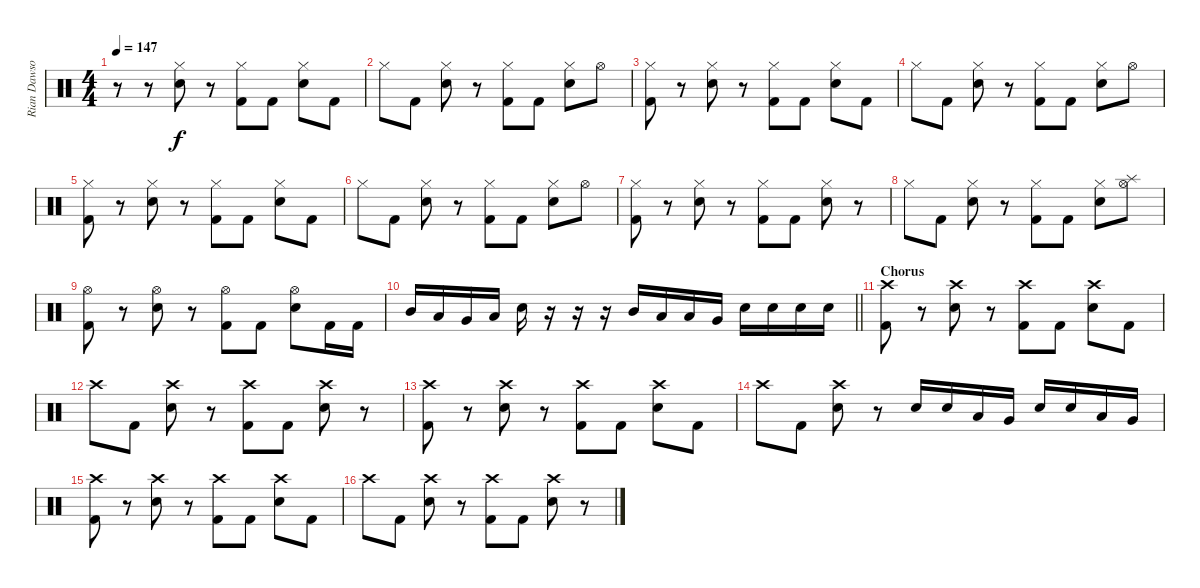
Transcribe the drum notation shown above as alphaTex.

\track ("Rian Dawson (Drums)" "Rian Dawso") {instrument percussion}
\staff {score}
\articulation defaults
\ts (4 4)
\tempo 147
\clef neutral
\ks c
r.8{dy f} r.8 ("Electric Snare (hit)" "Hi-Hat (closed)").8 r.8 ("Hi-Hat (closed)" "Kick (hit) 2").8 "Kick (hit) 2".8 ("Electric Snare (hit)" "Hi-Hat (closed)").8 "Kick (hit) 2".8 |
"Hi-Hat (closed)".8 "Kick (hit) 2".8 ("Electric Snare (hit)" "Hi-Hat (closed)").8 r.8 ("Hi-Hat (closed)" "Kick (hit) 2").8 "Kick (hit) 2".8 ("Electric Snare (hit)" "Hi-Hat (closed)").8 "Hi-Hat (open)".8 |
("Hi-Hat (closed)" "Kick (hit) 2").8 r.8 ("Electric Snare (hit)" "Hi-Hat (closed)").8 r.8 ("Hi-Hat (closed)" "Kick (hit) 2").8 "Kick (hit) 2".8 ("Electric Snare (hit)" "Hi-Hat (closed)").8 "Kick (hit) 2".8 |
"Hi-Hat (closed)".8 "Kick (hit) 2".8 ("Electric Snare (hit)" "Hi-Hat (closed)").8 r.8 ("Hi-Hat (closed)" "Kick (hit) 2").8 "Kick (hit) 2".8 ("Electric Snare (hit)" "Hi-Hat (closed)").8 "Hi-Hat (open)".8 |
("Hi-Hat (closed)" "Kick (hit) 2").8 r.8 ("Electric Snare (hit)" "Hi-Hat (closed)").8 r.8 ("Hi-Hat (closed)" "Kick (hit) 2").8 "Kick (hit) 2".8 ("Electric Snare (hit)" "Hi-Hat (closed)").8 "Kick (hit) 2".8 |
"Hi-Hat (closed)".8 "Kick (hit) 2".8 ("Electric Snare (hit)" "Hi-Hat (closed)").8 r.8 ("Hi-Hat (closed)" "Kick (hit) 2").8 "Kick (hit) 2".8 ("Electric Snare (hit)" "Hi-Hat (closed)").8 "Hi-Hat (open)".8 |
("Hi-Hat (closed)" "Kick (hit) 2").8 r.8 ("Electric Snare (hit)" "Hi-Hat (closed)").8 r.8 ("Hi-Hat (closed)" "Kick (hit) 2").8 "Kick (hit) 2".8 ("Electric Snare (hit)" "Hi-Hat (closed)").8 r.8 |
"Hi-Hat (closed)".8 "Kick (hit) 2".8 ("Electric Snare (hit)" "Hi-Hat (closed)").8 r.8 ("Hi-Hat (closed)" "Kick (hit) 2").8 "Kick (hit) 2".8 ("Electric Snare (hit)" "Hi-Hat (closed)").8 ("Hi-Hat (open)" "Splash (hit)").8 |
("Hi-Hat (open)" "Kick (hit) 2").8 r.8 ("Electric Snare (hit)" "Hi-Hat (open)").8 r.8 ("Hi-Hat (open)" "Kick (hit) 2").8 "Kick (hit) 2".8 ("Electric Snare (hit)" "Hi-Hat (open)").8 "Kick (hit) 2".16 "Kick (hit) 2".16 |
\barLineRight lightlight "Mid Tom (hit)".16 "Low Tom (hit)".16 "Very Low Tom (hit)".16 "Low Tom (hit)".16 "Electric Snare (hit)".16
r.16 r.16 r.16 "Mid Tom (hit)".16 "Low Tom (hit)".16 "Low Tom (hit)".16 "Very Low Tom (hit)".16 "Electric Snare (hit)".16 "Electric Snare (hit)".16 "Electric Snare (hit)".16 "Electric Snare (hit)".16 |
\section ("" "Chorus")
("Crash high (hit)" "Kick (hit) 2").8 r.8 ("Crash high (hit)" "Electric Snare (hit)").8 r.8 ("Crash high (hit)" "Kick (hit) 2").8 "Kick (hit) 2".8 ("Crash high (hit)" "Electric Snare (hit)").8 "Kick (hit) 2".8 |
"Crash high (hit)".8 "Kick (hit) 2".8 ("Crash high (hit)" "Electric Snare (hit)").8 r.8 ("Crash high (hit)" "Kick (hit) 2").8 "Kick (hit) 2".8 ("Crash high (hit)" "Electric Snare (hit)").8 r.8 |
("Crash high (hit)" "Kick (hit) 2").8 r.8 ("Crash high (hit)" "Electric Snare (hit)").8 r.8 ("Crash high (hit)" "Kick (hit) 2").8 "Kick (hit) 2".8 ("Crash high (hit)" "Electric Snare (hit)").8 "Kick (hit) 2".8 |
"Crash high (hit)".8 "Kick (hit) 2".8 ("Crash high (hit)" "Electric Snare (hit)").8 r.8 "Electric Snare (hit)".16 "Electric Snare (hit)".16 "Low Tom (hit)".16 "Very Low Tom (hit)".16 "Electric Snare (hit)".16 "Electric Snare (hit)".16 "Low Tom (hit)".16 "Very Low Tom (hit)".16 |
("Crash high (hit)" "Kick (hit) 2").8 r.8 ("Crash high (hit)" "Electric Snare (hit)").8 r.8 ("Crash high (hit)" "Kick (hit) 2").8 "Kick (hit) 2".8 ("Crash high (hit)" "Electric Snare (hit)").8 "Kick (hit) 2".8 |
"Crash high (hit)".8 "Kick (hit) 2".8 ("Crash high (hit)" "Electric Snare (hit)").8 r.8 ("Crash high (hit)" "Kick (hit) 2").8 "Kick (hit) 2".8 ("Crash high (hit)" "Electric Snare (hit)").8 r.8
